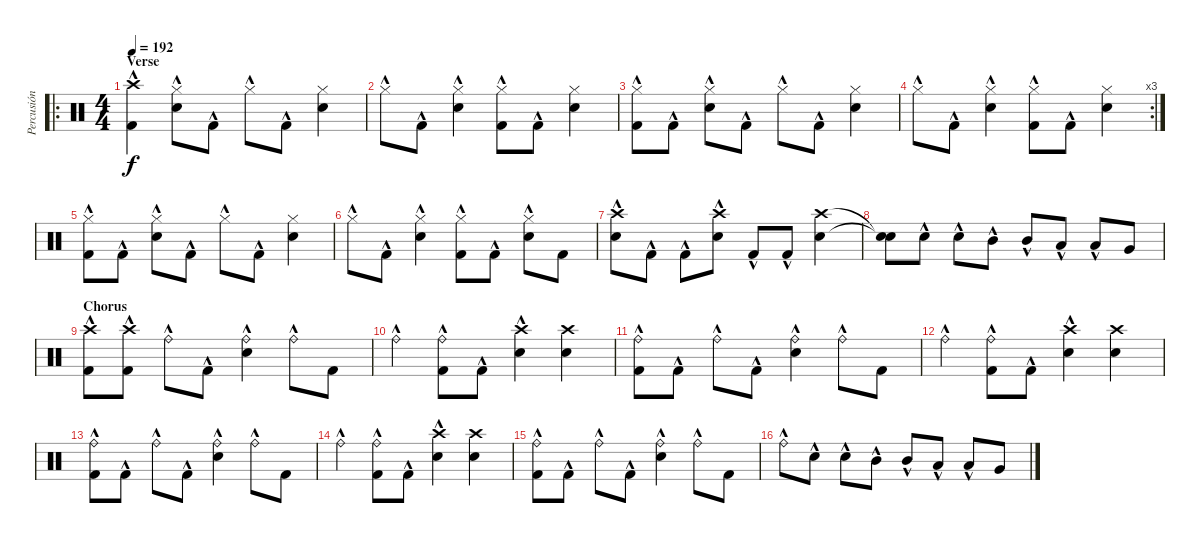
\track ("Percusión" "Percusión") {instrument percussion}
\staff {score}
\articulation defaults
\ro
\ts (4 4)
\section ("" "Verse")
\tempo 192
\clef neutral
\ks c
("Crash high (hit)"{hac} "Kick (hit) 2"{hac}).4{dy f} ("Hi-Hat (closed)"{hac} "Electric Snare (hit)"{hac}).8 "Kick (hit) 2"{hac}.8 "Hi-Hat (closed)"{hac}.8 "Kick (hit) 2"{hac}.8 ("Electric Snare (hit)" "Hi-Hat (closed)").4 |
"Hi-Hat (closed)"{hac}.8 "Kick (hit) 2"{hac}.8 ("Electric Snare (hit)"{hac} "Hi-Hat (closed)"{hac}).4 ("Kick (hit) 2"{hac} "Hi-Hat (closed)"{hac}).8 "Kick (hit) 2"{hac}.8 ("Electric Snare (hit)" "Hi-Hat (closed)").4 |
("Kick (hit) 2"{hac} "Hi-Hat (closed)"{hac}).8 "Kick (hit) 2"{hac}.8 ("Hi-Hat (closed)"{hac} "Electric Snare (hit)"{hac}).8 "Kick (hit) 2"{hac}.8 "Hi-Hat (closed)"{hac}.8 "Kick (hit) 2"{hac}.8 ("Hi-Hat (closed)" "Electric Snare (hit)").4 |
\rc 3 "Hi-Hat (closed)"{hac}.8 "Kick (hit) 2"{hac}.8
("Hi-Hat (closed)"{hac} "Electric Snare (hit)"{hac}).4 ("Kick (hit) 2"{hac} "Hi-Hat (closed)"{hac}).8 "Kick (hit) 2"{hac}.8 ("Electric Snare (hit)" "Hi-Hat (closed)").4 |
("Hi-Hat (closed)"{hac} "Kick (hit) 2"{hac}).8 "Kick (hit) 2"{hac}.8 ("Hi-Hat (closed)"{hac} "Electric Snare (hit)"{hac}).8 "Kick (hit) 2"{hac}.8 "Hi-Hat (closed)"{hac}.8 "Kick (hit) 2"{hac}.8 ("Electric Snare (hit)" "Hi-Hat (closed)").4 |
"Hi-Hat (closed)"{hac}.8 "Kick (hit) 2"{hac}.8 ("Electric Snare (hit)"{hac} "Hi-Hat (closed)"{hac}).4 ("Kick (hit) 2"{hac} "Hi-Hat (closed)"{hac}).8 "Kick (hit) 2"{hac}.8 ("Electric Snare (hit)"{hac} "Hi-Hat (closed)"{hac}).8 "Kick (hit) 2".8 |
("Electric Snare (hit)"{hac} "Crash high (hit)").8 "Kick (hit) 2"{hac}.8 "Kick (hit) 2"{hac}.8 ("Crash high (hit)" "Electric Snare (hit)"{hac}).8 "Kick (hit) 2"{hac}.8 "Kick (hit) 2"{hac}.8 ("Electric Snare (hit)" "Crash high (hit)").4 |
("Snare (hit)"{t} "Snare (hit)"{t}).8 "Electric Snare (hit)"{hac}.8 "Electric Snare (hit)"{hac}.8 "Mid Tom (hit)"{hac}.8 "Mid Tom (hit)"{hac}.8 "Low Tom (hit)"{hac}.8 "Low Tom (hit)"{hac}.8 "Very Low Tom (hit)".8 |
\section ("" "Chorus")
("Kick (hit) 2"{hac} "Crash high (hit)"{hac}).8 ("Crash high (hit)"{hac} "Kick (hit) 2"{hac}).8 "Ride (bell)"{hac}.8 "Kick (hit) 2"{hac}.8 ("Electric Snare (hit)"{hac} "Ride (bell)"{hac}).4 "Ride (bell)"{hac}.8 "Kick (hit) 2".8 |
"Ride (bell)"{hac}.4 ("Kick (hit) 2"{hac} "Ride (bell)"{hac}).8 "Kick (hit) 2"{hac}.8 ("Electric Snare (hit)"{hac} "Crash high (hit)"{hac}).4 ("Electric Snare (hit)" "Crash high (hit)").4 |
("Kick (hit) 2"{hac} "Ride (bell)"{hac}).8 "Kick (hit) 2"{hac}.8 "Ride (bell)"{hac}.8 "Kick (hit) 2"{hac}.8 ("Ride (bell)"{hac} "Electric Snare (hit)"{hac}).4 "Ride (bell)"{hac}.8 "Kick (hit) 2".8 |
"Ride (bell)"{hac}.4 ("Kick (hit) 2"{hac} "Ride (bell)"{hac}).8 "Kick (hit) 2"{hac}.8 ("Electric Snare (hit)"{hac} "Crash high (hit)"{hac}).4 ("Crash high (hit)" "Electric Snare (hit)").4 |
("Kick (hit) 2"{hac} "Ride (bell)"{hac}).8 "Kick (hit) 2"{hac}.8 "Ride (bell)"{hac}.8 "Kick (hit) 2"{hac}.8 ("Ride (bell)"{hac} "Electric Snare (hit)"{hac}).4 "Ride (bell)"{hac}.8 "Kick (hit) 2".8 |
"Ride (bell)"{hac}.4 ("Ride (bell)"{hac} "Kick (hit) 2"{hac}).8 "Kick (hit) 2"{hac}.8 ("Crash high (hit)"{hac} "Electric Snare (hit)"{hac}).4 ("Crash high (hit)" "Electric Snare (hit)").4 |
("Kick (hit) 2"{hac} "Ride (bell)"{hac}).8 "Kick (hit) 2"{hac}.8 "Ride (bell)"{hac}.8 "Kick (hit) 2"{hac}.8 ("Electric Snare (hit)"{hac} "Ride (bell)"{hac}).4 "Ride (bell)"{hac}.8 "Kick (hit) 2".8 |
"Ride (bell)"{hac}.8 "Electric Snare (hit)"{hac}.8 "Electric Snare (hit)"{hac}.8 "Mid Tom (hit)"{hac}.8 "Mid Tom (hit)"{hac}.8 "Low Tom (hit)"{hac}.8 "Low Tom (hit)"{hac}.8 "Very Low Tom (hit)".8
